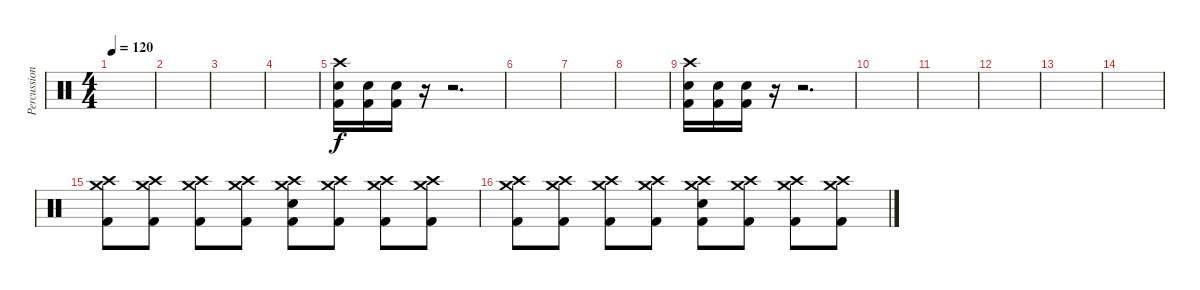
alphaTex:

\track ("Percussion" "Percussion") {instrument percussion}
\staff {score}
\articulation defaults
\ts (4 4)
\tempo 120
\clef neutral
\ks c
|
|
|
|
("Crash high (hit)" "Electric Snare (hit)" "Kick (hit) 2").16 ("Electric Snare (hit)" "Kick (hit) 2").16 ("Electric Snare (hit)" "Kick (hit) 2").16 r.16 r.2{d} |
|
|
|
("Crash high (hit)" "Electric Snare (hit)" "Kick (hit) 2").16 ("Electric Snare (hit)" "Kick (hit) 2").16 ("Electric Snare (hit)" "Kick (hit) 2").16 r.16 r.2{d} |
|
|
|
|
|
("Crash high (hit)" "Crash medium (hit)" "Kick (hit) 2").8 ("Crash high (hit)" "Crash medium (hit)" "Kick (hit) 2").8 ("Crash high (hit)" "Crash medium (hit)" "Kick (hit) 2").8 ("Crash high (hit)" "Crash medium (hit)" "Kick (hit) 2").8 ("Crash high (hit)" "Crash medium (hit)" "Electric Snare (hit)" "Kick (hit) 2").8 ("Crash high (hit)" "Crash medium (hit)" "Kick (hit) 2").8 ("Crash high (hit)" "Crash medium (hit)" "Kick (hit) 2").8 ("Crash high (hit)" "Crash medium (hit)" "Kick (hit) 2").8 |
("Crash high (hit)" "Crash medium (hit)" "Kick (hit) 2").8 ("Crash high (hit)" "Crash medium (hit)" "Kick (hit) 2").8 ("Crash high (hit)" "Crash medium (hit)" "Kick (hit) 2").8 ("Crash high (hit)" "Crash medium (hit)" "Kick (hit) 2").8 ("Crash high (hit)" "Crash medium (hit)" "Electric Snare (hit)" "Kick (hit) 2").8 ("Crash high (hit)" "Crash medium (hit)" "Kick (hit) 2").8 ("Crash high (hit)" "Crash medium (hit)" "Kick (hit) 2").8 ("Crash high (hit)" "Crash medium (hit)" "Kick (hit) 2").8
